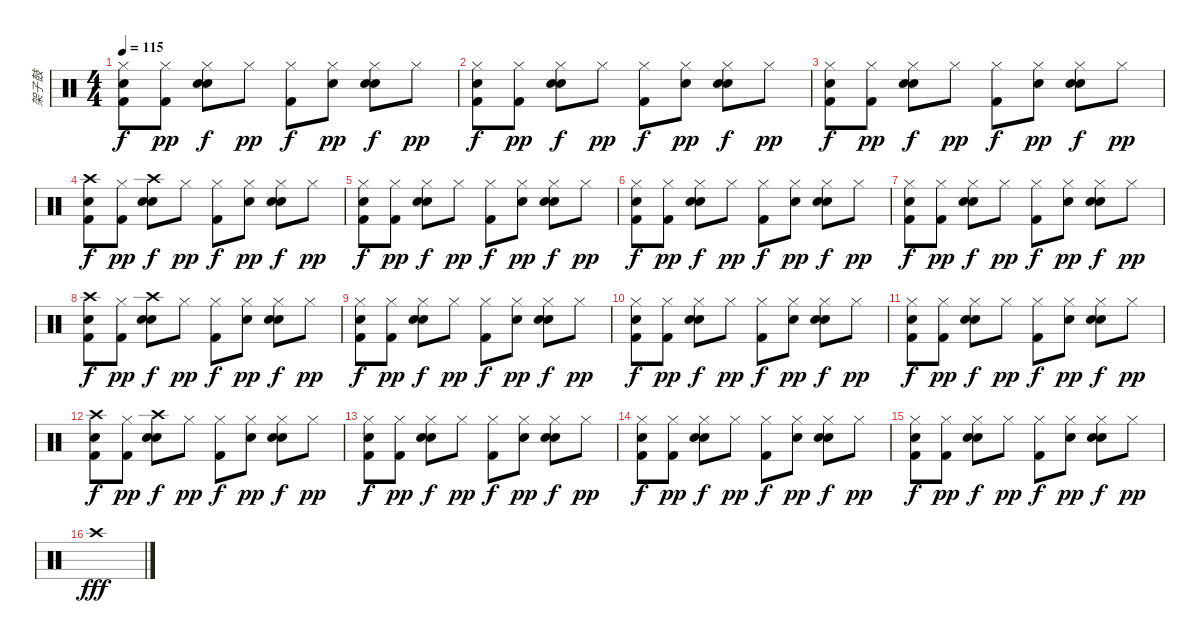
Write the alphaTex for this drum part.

\track ("架子鼓" "架子鼓") {instrument percussion}
\staff {score}
\articulation defaults
\ts (4 4)
\tempo 115
\clef neutral
\ks c
("Hi-Hat (closed)" "Electric Snare (hit)" "Kick (hit) 2").8{dy f} ("Hi-Hat (closed)" "Kick (hit) 2").8{dy pp} ("Hi-Hat (closed)" "Snare (hit) 2" "Electric Snare (hit)").8{dy f} "Hi-Hat (closed)".8{dy pp} ("Hi-Hat (closed)" "Kick (hit) 2").8{dy f} ("Hi-Hat (closed)" "Snare (hit) 2").8{dy pp} ("Hi-Hat (closed)" "Snare (hit) 2" "Electric Snare (hit)").8{dy f} "Hi-Hat (closed)".8{dy pp} |
("Hi-Hat (closed)" "Electric Snare (hit)" "Kick (hit) 2").8{dy f} ("Hi-Hat (closed)" "Kick (hit) 2").8{dy pp} ("Hi-Hat (closed)" "Snare (hit) 2" "Electric Snare (hit)").8{dy f} "Hi-Hat (closed)".8{dy pp} ("Hi-Hat (closed)" "Kick (hit) 2").8{dy f} ("Hi-Hat (closed)" "Snare (hit) 2").8{dy pp} ("Hi-Hat (closed)" "Snare (hit) 2" "Electric Snare (hit)").8{dy f} "Hi-Hat (closed)".8{dy pp} |
("Hi-Hat (closed)" "Electric Snare (hit)" "Kick (hit) 2").8{dy f} ("Hi-Hat (closed)" "Kick (hit) 2").8{dy pp} ("Hi-Hat (closed)" "Snare (hit) 2" "Electric Snare (hit)").8{dy f} "Hi-Hat (closed)".8{dy pp} ("Hi-Hat (closed)" "Kick (hit) 2").8{dy f} ("Hi-Hat (closed)" "Snare (hit) 2").8{dy pp} ("Hi-Hat (closed)" "Snare (hit) 2" "Electric Snare (hit)").8{dy f} "Hi-Hat (closed)".8{dy pp} |
("Crash high (hit)" "Electric Snare (hit)" "Kick (hit) 2").8{dy f} ("Hi-Hat (closed)" "Kick (hit) 2").8{dy pp} ("Crash high (hit)" "Snare (hit) 2" "Electric Snare (hit)").8{dy f} "Hi-Hat (closed)".8{dy pp} ("Hi-Hat (closed)" "Kick (hit) 2").8{dy f} ("Hi-Hat (closed)" "Snare (hit) 2").8{dy pp} ("Hi-Hat (closed)" "Snare (hit) 2" "Electric Snare (hit)").8{dy f} "Hi-Hat (closed)".8{dy pp} |
("Hi-Hat (closed)" "Electric Snare (hit)" "Kick (hit) 2").8{dy f} ("Hi-Hat (closed)" "Kick (hit) 2").8{dy pp} ("Hi-Hat (closed)" "Snare (hit) 2" "Electric Snare (hit)").8{dy f} "Hi-Hat (closed)".8{dy pp} ("Hi-Hat (closed)" "Kick (hit) 2").8{dy f} ("Hi-Hat (closed)" "Snare (hit) 2").8{dy pp} ("Hi-Hat (closed)" "Snare (hit) 2" "Electric Snare (hit)").8{dy f} "Hi-Hat (closed)".8{dy pp} |
("Hi-Hat (closed)" "Electric Snare (hit)" "Kick (hit) 2").8{dy f} ("Hi-Hat (closed)" "Kick (hit) 2").8{dy pp} ("Hi-Hat (closed)" "Snare (hit) 2" "Electric Snare (hit)").8{dy f} "Hi-Hat (closed)".8{dy pp} ("Hi-Hat (closed)" "Kick (hit) 2").8{dy f} ("Hi-Hat (closed)" "Snare (hit) 2").8{dy pp} ("Hi-Hat (closed)" "Snare (hit) 2" "Electric Snare (hit)").8{dy f} "Hi-Hat (closed)".8{dy pp} |
("Hi-Hat (closed)" "Electric Snare (hit)" "Kick (hit) 2").8{dy f} ("Hi-Hat (closed)" "Kick (hit) 2").8{dy pp} ("Hi-Hat (closed)" "Snare (hit) 2" "Electric Snare (hit)").8{dy f} "Hi-Hat (closed)".8{dy pp} ("Hi-Hat (closed)" "Kick (hit) 2").8{dy f} ("Hi-Hat (closed)" "Snare (hit) 2").8{dy pp} ("Hi-Hat (closed)" "Snare (hit) 2" "Electric Snare (hit)").8{dy f} "Hi-Hat (closed)".8{dy pp} |
("Crash high (hit)" "Electric Snare (hit)" "Kick (hit) 2").8{dy f} ("Hi-Hat (closed)" "Kick (hit) 2").8{dy pp} ("Crash high (hit)" "Snare (hit) 2" "Electric Snare (hit)").8{dy f} "Hi-Hat (closed)".8{dy pp} ("Hi-Hat (closed)" "Kick (hit) 2").8{dy f} ("Hi-Hat (closed)" "Snare (hit) 2").8{dy pp} ("Hi-Hat (closed)" "Snare (hit) 2" "Electric Snare (hit)").8{dy f} "Hi-Hat (closed)".8{dy pp} |
("Hi-Hat (closed)" "Electric Snare (hit)" "Kick (hit) 2").8{dy f} ("Hi-Hat (closed)" "Kick (hit) 2").8{dy pp} ("Hi-Hat (closed)" "Snare (hit) 2" "Electric Snare (hit)").8{dy f} "Hi-Hat (closed)".8{dy pp} ("Hi-Hat (closed)" "Kick (hit) 2").8{dy f} ("Hi-Hat (closed)" "Snare (hit) 2").8{dy pp} ("Hi-Hat (closed)" "Snare (hit) 2" "Electric Snare (hit)").8{dy f} "Hi-Hat (closed)".8{dy pp} |
("Hi-Hat (closed)" "Electric Snare (hit)" "Kick (hit) 2").8{dy f} ("Hi-Hat (closed)" "Kick (hit) 2").8{dy pp} ("Hi-Hat (closed)" "Snare (hit) 2" "Electric Snare (hit)").8{dy f} "Hi-Hat (closed)".8{dy pp} ("Hi-Hat (closed)" "Kick (hit) 2").8{dy f} ("Hi-Hat (closed)" "Snare (hit) 2").8{dy pp} ("Hi-Hat (closed)" "Snare (hit) 2" "Electric Snare (hit)").8{dy f} "Hi-Hat (closed)".8{dy pp} |
("Hi-Hat (closed)" "Electric Snare (hit)" "Kick (hit) 2").8{dy f} ("Hi-Hat (closed)" "Kick (hit) 2").8{dy pp} ("Hi-Hat (closed)" "Snare (hit) 2" "Electric Snare (hit)").8{dy f} "Hi-Hat (closed)".8{dy pp} ("Hi-Hat (closed)" "Kick (hit) 2").8{dy f} ("Hi-Hat (closed)" "Snare (hit) 2").8{dy pp} ("Hi-Hat (closed)" "Snare (hit) 2" "Electric Snare (hit)").8{dy f} "Hi-Hat (closed)".8{dy pp} |
("Crash high (hit)" "Electric Snare (hit)" "Kick (hit) 2").8{dy f} ("Hi-Hat (closed)" "Kick (hit) 2").8{dy pp} ("Crash high (hit)" "Snare (hit) 2" "Electric Snare (hit)").8{dy f} "Hi-Hat (closed)".8{dy pp} ("Hi-Hat (closed)" "Kick (hit) 2").8{dy f} ("Hi-Hat (closed)" "Snare (hit) 2").8{dy pp} ("Hi-Hat (closed)" "Snare (hit) 2" "Electric Snare (hit)").8{dy f} "Hi-Hat (closed)".8{dy pp} |
("Hi-Hat (closed)" "Electric Snare (hit)" "Kick (hit) 2").8{dy f} ("Hi-Hat (closed)" "Kick (hit) 2").8{dy pp} ("Hi-Hat (closed)" "Snare (hit) 2" "Electric Snare (hit)").8{dy f} "Hi-Hat (closed)".8{dy pp} ("Hi-Hat (closed)" "Kick (hit) 2").8{dy f} ("Hi-Hat (closed)" "Snare (hit) 2").8{dy pp} ("Hi-Hat (closed)" "Snare (hit) 2" "Electric Snare (hit)").8{dy f} "Hi-Hat (closed)".8{dy pp} |
("Hi-Hat (closed)" "Electric Snare (hit)" "Kick (hit) 2").8{dy f} ("Hi-Hat (closed)" "Kick (hit) 2").8{dy pp} ("Hi-Hat (closed)" "Snare (hit) 2" "Electric Snare (hit)").8{dy f} "Hi-Hat (closed)".8{dy pp} ("Hi-Hat (closed)" "Kick (hit) 2").8{dy f} ("Hi-Hat (closed)" "Snare (hit) 2").8{dy pp} ("Hi-Hat (closed)" "Snare (hit) 2" "Electric Snare (hit)").8{dy f} "Hi-Hat (closed)".8{dy pp} |
("Hi-Hat (closed)" "Electric Snare (hit)" "Kick (hit) 2").8{dy f} ("Hi-Hat (closed)" "Kick (hit) 2").8{dy pp} ("Hi-Hat (closed)" "Snare (hit) 2" "Electric Snare (hit)").8{dy f} "Hi-Hat (closed)".8{dy pp} ("Hi-Hat (closed)" "Kick (hit) 2").8{dy f} ("Hi-Hat (closed)" "Snare (hit) 2").8{dy pp} ("Hi-Hat (closed)" "Snare (hit) 2" "Electric Snare (hit)").8{dy f} "Hi-Hat (closed)".8{dy pp} |
"Crash high (hit)".1{dy fff}
